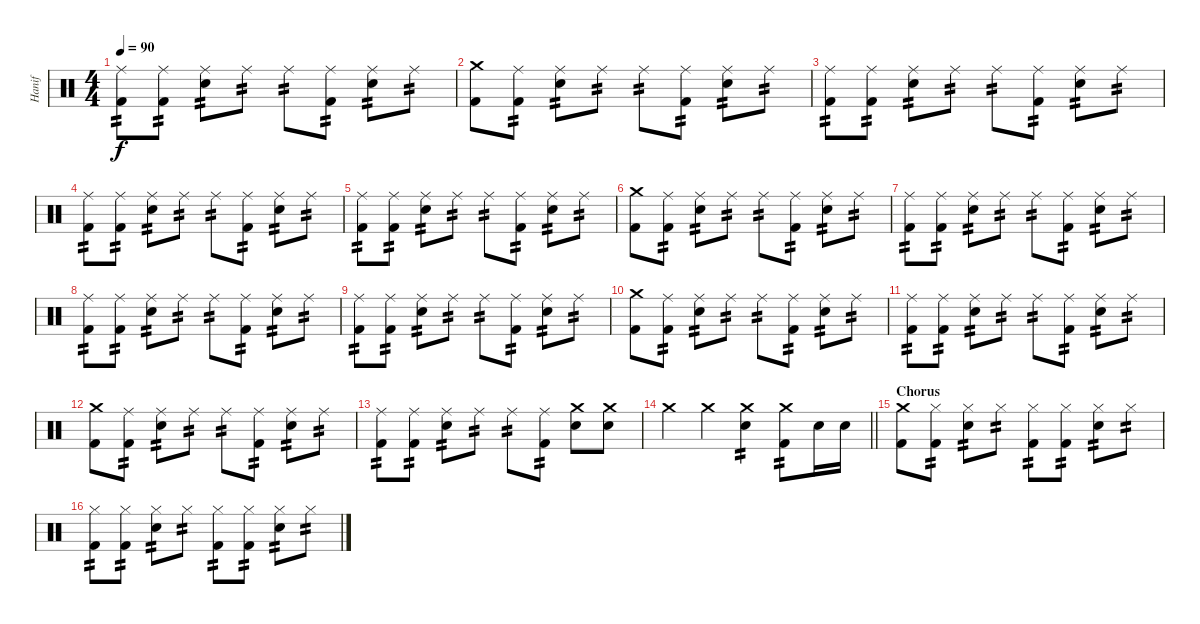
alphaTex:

\track ("Hanif" "Hanif") {instrument percussion}
\staff {score}
\articulation defaults
\ts (4 4)
\tempo 90
\clef neutral
\ks c
("Ride (middle)" "Kick (hit) 2").8{tp 2 dy f} ("Ride (middle)" "Kick (hit) 2").8{tp 2} ("Ride (middle)" "Snare (hit) 2").8{tp 2} "Ride (middle)".8{tp 2} "Ride (middle)".8{tp 2} ("Ride (middle)" "Kick (hit) 2").8{tp 2} ("Ride (middle)" "Snare (hit) 2").8{tp 2} "Ride (middle)".8{tp 2} |
("Crash medium (hit)" "Kick (hit) 2").8 ("Ride (middle)" "Kick (hit) 2").8{tp 2} ("Ride (middle)" "Snare (hit) 2").8{tp 2} "Ride (middle)".8{tp 2} "Ride (middle)".8{tp 2} ("Ride (middle)" "Kick (hit) 2").8{tp 2} ("Ride (middle)" "Snare (hit) 2").8{tp 2} "Ride (middle)".8{tp 2} |
("Ride (middle)" "Kick (hit) 2").8{tp 2} ("Ride (middle)" "Kick (hit) 2").8{tp 2} ("Ride (middle)" "Snare (hit) 2").8{tp 2} "Ride (middle)".8{tp 2} "Ride (middle)".8{tp 2} ("Ride (middle)" "Kick (hit) 2").8{tp 2} ("Ride (middle)" "Snare (hit) 2").8{tp 2} "Ride (middle)".8{tp 2} |
("Ride (middle)" "Kick (hit) 2").8{tp 2} ("Ride (middle)" "Kick (hit) 2").8{tp 2} ("Ride (middle)" "Snare (hit) 2").8{tp 2} "Ride (middle)".8{tp 2} "Ride (middle)".8{tp 2} ("Ride (middle)" "Kick (hit) 2").8{tp 2} ("Ride (middle)" "Snare (hit) 2").8{tp 2} "Ride (middle)".8{tp 2} |
("Ride (middle)" "Kick (hit) 2").8{tp 2} ("Ride (middle)" "Kick (hit) 2").8{tp 2} ("Ride (middle)" "Snare (hit) 2").8{tp 2} "Ride (middle)".8{tp 2} "Ride (middle)".8{tp 2} ("Ride (middle)" "Kick (hit) 2").8{tp 2} ("Ride (middle)" "Snare (hit) 2").8{tp 2} "Ride (middle)".8{tp 2} |
("Crash medium (hit)" "Kick (hit) 2").8 ("Ride (middle)" "Kick (hit) 2").8{tp 2} ("Ride (middle)" "Snare (hit) 2").8{tp 2} "Ride (middle)".8{tp 2} "Ride (middle)".8{tp 2} ("Ride (middle)" "Kick (hit) 2").8{tp 2} ("Ride (middle)" "Snare (hit) 2").8{tp 2} "Ride (middle)".8{tp 2} |
("Ride (middle)" "Kick (hit) 2").8{tp 2} ("Ride (middle)" "Kick (hit) 2").8{tp 2} ("Ride (middle)" "Snare (hit) 2").8{tp 2} "Ride (middle)".8{tp 2} "Ride (middle)".8{tp 2} ("Ride (middle)" "Kick (hit) 2").8{tp 2} ("Ride (middle)" "Snare (hit) 2").8{tp 2} "Ride (middle)".8{tp 2} |
("Ride (middle)" "Kick (hit) 2").8{tp 2} ("Ride (middle)" "Kick (hit) 2").8{tp 2} ("Ride (middle)" "Snare (hit) 2").8{tp 2} "Ride (middle)".8{tp 2} "Ride (middle)".8{tp 2} ("Ride (middle)" "Kick (hit) 2").8{tp 2} ("Ride (middle)" "Snare (hit) 2").8{tp 2} "Ride (middle)".8{tp 2} |
("Ride (middle)" "Kick (hit) 2").8{tp 2} ("Ride (middle)" "Kick (hit) 2").8{tp 2} ("Ride (middle)" "Snare (hit) 2").8{tp 2} "Ride (middle)".8{tp 2} "Ride (middle)".8{tp 2} ("Ride (middle)" "Kick (hit) 2").8{tp 2} ("Ride (middle)" "Snare (hit) 2").8{tp 2} "Ride (middle)".8{tp 2} |
("Crash medium (hit)" "Kick (hit) 2").8 ("Ride (middle)" "Kick (hit) 2").8{tp 2} ("Ride (middle)" "Snare (hit) 2").8{tp 2} "Ride (middle)".8{tp 2} "Ride (middle)".8{tp 2} ("Ride (middle)" "Kick (hit) 2").8{tp 2} ("Ride (middle)" "Snare (hit) 2").8{tp 2} "Ride (middle)".8{tp 2} |
("Ride (middle)" "Kick (hit) 2").8{tp 2} ("Ride (middle)" "Kick (hit) 2").8{tp 2} ("Ride (middle)" "Snare (hit) 2").8{tp 2} "Ride (middle)".8{tp 2} "Ride (middle)".8{tp 2} ("Ride (middle)" "Kick (hit) 2").8{tp 2} ("Ride (middle)" "Snare (hit) 2").8{tp 2} "Ride (middle)".8{tp 2} |
("Crash medium (hit)" "Kick (hit) 2").8 ("Ride (middle)" "Kick (hit) 2").8{tp 2} ("Ride (middle)" "Snare (hit) 2").8{tp 2} "Ride (middle)".8{tp 2} "Ride (middle)".8{tp 2} ("Ride (middle)" "Kick (hit) 2").8{tp 2} ("Ride (middle)" "Snare (hit) 2").8{tp 2} "Ride (middle)".8{tp 2} |
("Ride (middle)" "Kick (hit) 2").8{tp 2} ("Ride (middle)" "Kick (hit) 2").8{tp 2} ("Ride (middle)" "Snare (hit) 2").8{tp 2} "Ride (middle)".8{tp 2} "Ride (middle)".8{tp 2} ("Ride (middle)" "Kick (hit) 2").8{tp 2} ("Crash medium (hit)" "Snare (hit) 2").8 ("Crash medium (hit)" "Snare (hit) 2").8 |
\barLineRight lightlight "Crash medium (hit)".4 "Crash medium (hit)".4
("Crash medium (hit)" "Snare (hit) 2").4{tp 2} ("Crash medium (hit)" "Kick (hit) 2").8{tp 2} "Snare (hit) 2".16 "Snare (hit) 2".16 |
\section ("" "Chorus")
("Crash medium (hit)" "Kick (hit) 2").8 ("Hi-Hat (closed)" "Kick (hit) 2").8{tp 2} ("Hi-Hat (closed)" "Snare (hit) 2").8{tp 2} "Hi-Hat (closed)".8{tp 2} ("Hi-Hat (closed)" "Kick (hit) 2").8{tp 2} ("Hi-Hat (closed)" "Kick (hit) 2").8{tp 2} ("Hi-Hat (closed)" "Snare (hit) 2").8{tp 2} "Hi-Hat (closed)".8{tp 2} |
("Hi-Hat (closed)" "Kick (hit) 2").8{tp 2} ("Hi-Hat (closed)" "Kick (hit) 2").8{tp 2} ("Hi-Hat (closed)" "Snare (hit) 2").8{tp 2} "Hi-Hat (closed)".8{tp 2} ("Hi-Hat (closed)" "Kick (hit) 2").8{tp 2} ("Hi-Hat (closed)" "Kick (hit) 2").8{tp 2} ("Hi-Hat (closed)" "Snare (hit) 2").8{tp 2} "Hi-Hat (closed)".8{tp 2}
